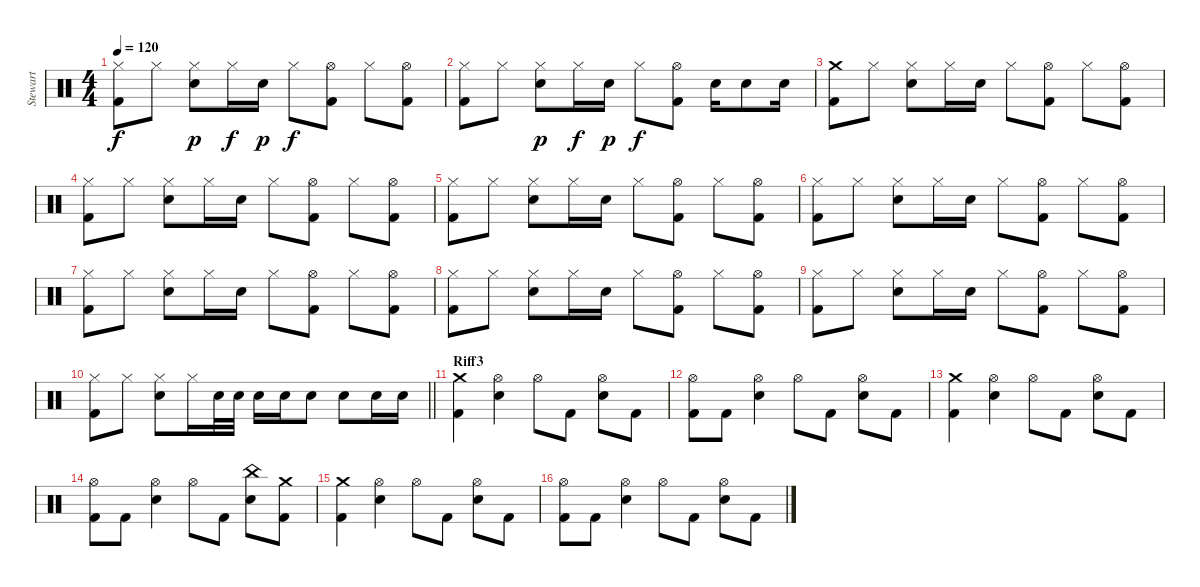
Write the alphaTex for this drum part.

\track ("Stewart" "Stewart") {instrument percussion}
\staff {score}
\articulation defaults
\ts (4 4)
\tempo 120
\clef neutral
\ks c
("Hi-Hat (closed)" "Kick (hit) 2").8{dy f} "Hi-Hat (closed)".8 ("Hi-Hat (closed)" "Electric Snare (hit)").8{dy p} "Hi-Hat (closed)".16{dy f} "Electric Snare (hit)".16{dy p} "Hi-Hat (closed)".8{dy f} ("Hi-Hat (open)" "Kick (hit) 2").8 "Hi-Hat (closed)".8 ("Hi-Hat (open)" "Kick (hit) 2").8 |
("Hi-Hat (closed)" "Kick (hit) 2").8 "Hi-Hat (closed)".8 ("Hi-Hat (closed)" "Electric Snare (hit)").8{dy p} "Hi-Hat (closed)".16{dy f} "Electric Snare (hit)".16{dy p} "Hi-Hat (closed)".8{dy f} ("Hi-Hat (open)" "Kick (hit) 2").8 "Electric Snare (hit)".16 "Electric Snare (hit)".8 "Electric Snare (hit)".16 |
("Crash medium (hit)" "Kick (hit) 2").8 "Hi-Hat (closed)".8 ("Hi-Hat (closed)" "Electric Snare (hit)").8 "Hi-Hat (closed)".16 "Electric Snare (hit)".16 "Hi-Hat (closed)".8 ("Hi-Hat (open)" "Kick (hit) 2").8 "Hi-Hat (closed)".8 ("Hi-Hat (open)" "Kick (hit) 2").8 |
("Hi-Hat (closed)" "Kick (hit) 2").8 "Hi-Hat (closed)".8 ("Hi-Hat (closed)" "Electric Snare (hit)").8 "Hi-Hat (closed)".16 "Electric Snare (hit)".16 "Hi-Hat (closed)".8 ("Hi-Hat (open)" "Kick (hit) 2").8 "Hi-Hat (closed)".8 ("Hi-Hat (open)" "Kick (hit) 2").8 |
("Hi-Hat (closed)" "Kick (hit) 2").8 "Hi-Hat (closed)".8 ("Hi-Hat (closed)" "Electric Snare (hit)").8 "Hi-Hat (closed)".16 "Electric Snare (hit)".16 "Hi-Hat (closed)".8 ("Hi-Hat (open)" "Kick (hit) 2").8 "Hi-Hat (closed)".8 ("Hi-Hat (open)" "Kick (hit) 2").8 |
("Hi-Hat (closed)" "Kick (hit) 2").8 "Hi-Hat (closed)".8 ("Hi-Hat (closed)" "Electric Snare (hit)").8 "Hi-Hat (closed)".16 "Electric Snare (hit)".16 "Hi-Hat (closed)".8 ("Hi-Hat (open)" "Kick (hit) 2").8 "Hi-Hat (closed)".8 ("Hi-Hat (open)" "Kick (hit) 2").8 |
("Hi-Hat (closed)" "Kick (hit) 2").8 "Hi-Hat (closed)".8 ("Hi-Hat (closed)" "Electric Snare (hit)").8 "Hi-Hat (closed)".16 "Electric Snare (hit)".16 "Hi-Hat (closed)".8 ("Hi-Hat (open)" "Kick (hit) 2").8 "Hi-Hat (closed)".8 ("Hi-Hat (open)" "Kick (hit) 2").8 |
("Hi-Hat (closed)" "Kick (hit) 2").8 "Hi-Hat (closed)".8 ("Hi-Hat (closed)" "Electric Snare (hit)").8 "Hi-Hat (closed)".16 "Electric Snare (hit)".16 "Hi-Hat (closed)".8 ("Hi-Hat (open)" "Kick (hit) 2").8 "Hi-Hat (closed)".8 ("Hi-Hat (open)" "Kick (hit) 2").8 |
("Hi-Hat (closed)" "Kick (hit) 2").8 "Hi-Hat (closed)".8 ("Hi-Hat (closed)" "Electric Snare (hit)").8 "Hi-Hat (closed)".16 "Electric Snare (hit)".16 "Hi-Hat (closed)".8 ("Hi-Hat (open)" "Kick (hit) 2").8 "Hi-Hat (closed)".8 ("Hi-Hat (open)" "Kick (hit) 2").8 |
\barLineRight lightlight
("Hi-Hat (closed)" "Kick (hit) 2").8 "Hi-Hat (closed)".8 ("Hi-Hat (closed)" "Electric Snare (hit)").8 "Hi-Hat (closed)".16 "Electric Snare (hit)".32 "Electric Snare (hit)".32 "Electric Snare (hit)".16 "Electric Snare (hit)".16 "Electric Snare (hit)".8 "Electric Snare (hit)".8 "Electric Snare (hit)".16 "Electric Snare (hit)".16 |
\section ("" "Riff3")
("Crash medium (hit)" "Kick (hit) 2").4 ("Hi-Hat (open)" "Electric Snare (hit)").4 "Hi-Hat (open)".8 "Kick (hit) 2".8 ("Hi-Hat (open)" "Electric Snare (hit)").8 "Kick (hit) 2".8 |
("Hi-Hat (open)" "Kick (hit) 2").8 "Kick (hit) 2".8 ("Hi-Hat (open)" "Electric Snare (hit)").4 "Hi-Hat (open)".8 "Kick (hit) 2".8 ("Hi-Hat (open)" "Electric Snare (hit)").8 "Kick (hit) 2".8 |
("Crash medium (hit)" "Kick (hit) 2").4 ("Hi-Hat (open)" "Electric Snare (hit)").4 "Hi-Hat (open)".8 "Kick (hit) 2".8 ("Hi-Hat (open)" "Electric Snare (hit)").8 "Kick (hit) 2".8 |
("Hi-Hat (open)" "Kick (hit) 2").8 "Kick (hit) 2".8 ("Hi-Hat (open)" "Electric Snare (hit)").4 "Hi-Hat (open)".8 "Kick (hit) 2".8 ("China (hit)" "Electric Snare (hit)").8 ("Crash medium (hit)" "Kick (hit) 2").8 |
("Crash medium (hit)" "Kick (hit) 2").4 ("Hi-Hat (open)" "Electric Snare (hit)").4 "Hi-Hat (open)".8 "Kick (hit) 2".8 ("Hi-Hat (open)" "Electric Snare (hit)").8 "Kick (hit) 2".8 |
("Hi-Hat (open)" "Kick (hit) 2").8 "Kick (hit) 2".8 ("Hi-Hat (open)" "Electric Snare (hit)").4 "Hi-Hat (open)".8 "Kick (hit) 2".8 ("Hi-Hat (open)" "Electric Snare (hit)").8 "Kick (hit) 2".8
